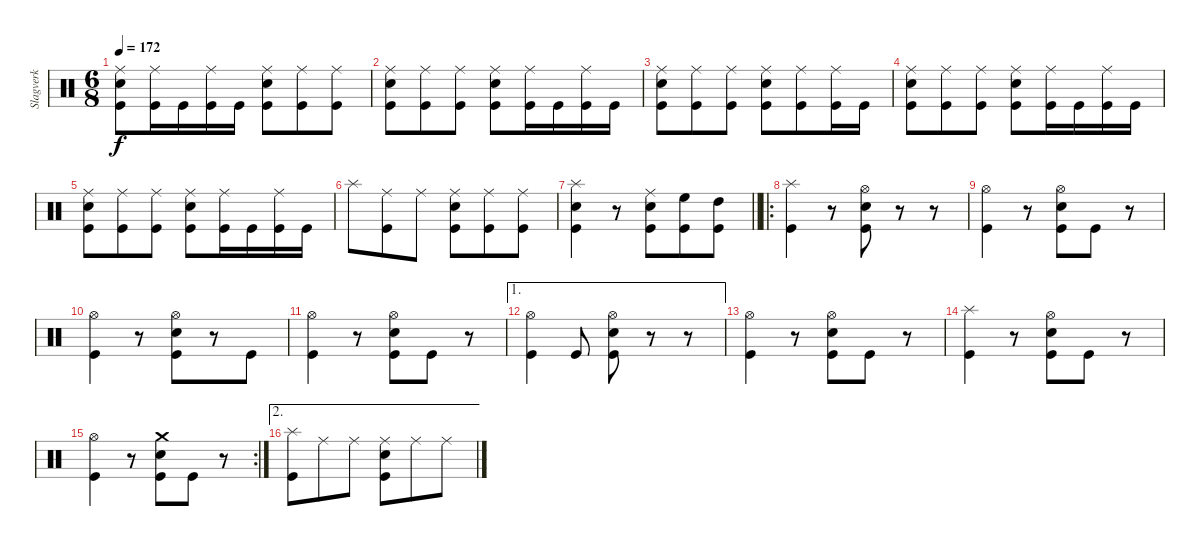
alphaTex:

\track ("Slagverk" "Slagverk") {instrument percussion}
\staff {score}
\articulation defaults
\ts (6 8)
\tempo 172
\clef neutral
\ks c
("Ride (middle)" "Snare (hit) 2" "Kick (hit)").8{dy f} ("Ride (middle)" "Kick (hit)").16 "Kick (hit)".16 ("Ride (middle)" "Kick (hit)").16 "Kick (hit)".16 ("Ride (middle)" "Snare (hit) 2" "Kick (hit)").8 ("Ride (middle)" "Kick (hit)").8 ("Ride (middle)" "Kick (hit)").8 |
("Ride (middle)" "Snare (hit) 2" "Kick (hit)").8 ("Ride (middle)" "Kick (hit)").8 ("Ride (middle)" "Kick (hit)").8 ("Ride (middle)" "Snare (hit) 2" "Kick (hit)").8 ("Ride (middle)" "Kick (hit)").16 "Kick (hit)".16 ("Ride (middle)" "Kick (hit)").16 "Kick (hit)".16 |
("Ride (middle)" "Snare (hit) 2" "Kick (hit)").8 ("Ride (middle)" "Kick (hit)").8 ("Ride (middle)" "Kick (hit)").8 ("Ride (middle)" "Snare (hit) 2" "Kick (hit)").8 ("Ride (middle)" "Kick (hit)").8 ("Ride (middle)" "Kick (hit)").16 "Kick (hit)".16 |
("Ride (middle)" "Snare (hit) 2" "Kick (hit)").8 ("Ride (middle)" "Kick (hit)").8 ("Ride (middle)" "Kick (hit)").8 ("Ride (middle)" "Snare (hit) 2" "Kick (hit)").8 ("Ride (middle)" "Kick (hit)").16 "Kick (hit)".16 ("Ride (middle)" "Kick (hit)").16 "Kick (hit)".16 |
("Ride (middle)" "Snare (hit) 2" "Kick (hit)").8 ("Ride (middle)" "Kick (hit)").8 ("Ride (middle)" "Kick (hit)").8 ("Ride (middle)" "Snare (hit) 2" "Kick (hit)").8 ("Ride (middle)" "Kick (hit)").16 "Kick (hit)".16 ("Ride (middle)" "Kick (hit)").16 "Kick (hit)".16 |
"Splash (hit)".8 ("Ride (middle)" "Kick (hit)").8 "Ride (middle)".8 ("Ride (middle)" "Snare (hit) 2" "Kick (hit)").8 ("Ride (middle)" "Kick (hit)").8 ("Ride (middle)" "Kick (hit)").8 |
\barLineRight lightlight
("Splash (hit)" "Snare (hit) 2" "Kick (hit)").4 r.8 ("Ride (middle)" "Snare (hit) 2" "Kick (hit)").8 ("High Floor Tom (hit)" "Kick (hit)").8 ("High Tom (hit)" "Kick (hit)").8 |
\ro
("Splash (hit)" "Kick (hit)").4 r.8 ("Hi-Hat (open)" "Snare (hit) 2" "Kick (hit)").8 r.8 r.8 |
("Hi-Hat (open)" "Kick (hit)").4 r.8 ("Hi-Hat (open)" "Snare (hit) 2" "Kick (hit)").8 "Kick (hit)".8 r.8 |
("Hi-Hat (open)" "Kick (hit)").4 r.8 ("Hi-Hat (open)" "Snare (hit) 2" "Kick (hit)").8 r.8 "Kick (hit)".8 |
("Hi-Hat (open)" "Kick (hit)").4 r.8 ("Hi-Hat (open)" "Snare (hit) 2" "Kick (hit)").8 "Kick (hit)".8 r.8 |
\ae 1
("Hi-Hat (open)" "Kick (hit)").4 "Kick (hit)".8 ("Hi-Hat (open)" "Snare (hit) 2" "Kick (hit)").8 r.8 r.8 |
("Hi-Hat (open)" "Kick (hit)").4 r.8 ("Hi-Hat (open)" "Snare (hit) 2" "Kick (hit)").8 "Kick (hit)".8 r.8 |
("Splash (hit)" "Kick (hit)").4 r.8 ("Hi-Hat (open)" "Snare (hit) 2" "Kick (hit)").8 "Kick (hit)".8 r.8 |
\rc 2
("Hi-Hat (open)" "Kick (hit)").4 r.8 ("Crash medium (hit)" "Snare (hit) 2" "Kick (hit)").8 "Kick (hit)".8 r.8 |
\ae 2
("Splash (hit)" "Kick (hit)").8 "Ride (middle)".8 "Ride (middle)".8 ("Ride (middle)" "Snare (hit) 2" "Kick (hit)").8 "Ride (middle)".8 "Ride (middle)".8
